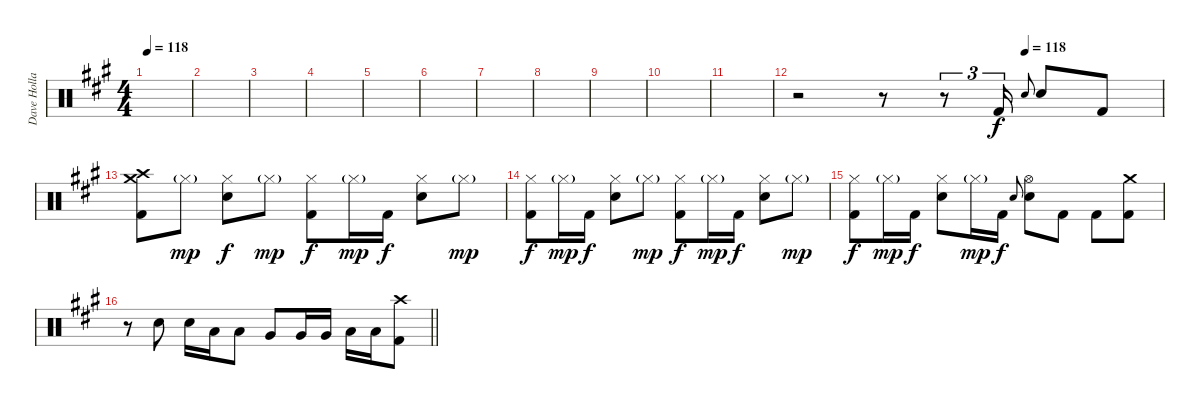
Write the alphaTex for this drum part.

\track ("Dave Holland" "Dave Holla") {instrument percussion}
\staff {score}
\articulation defaults
\ts (4 4)
\tempo 118
\tempo 114
\tempo 118
\clef neutral
\ks f#minor
|
|
|
|
|
|
|
|
|
|
|
\tempo (118 0.625)
r.2 r.8 r.8{tu (3 2)} "Kick (hit) 2".16{tu (3 2)} "Snare (hit) 2".8{gr onbeat} "Snare (hit) 2".8 "Kick (hit) 2".8 |
("Crash high (hit)" "Crash medium (hit)" "Kick (hit) 2").8 "Hi-Hat (closed)"{g}.8{dy mp} ("Hi-Hat (closed)" "Snare (hit) 2").8{dy f} "Hi-Hat (closed)"{g}.8{dy mp} ("Hi-Hat (closed)" "Kick (hit) 2").8{dy f} "Hi-Hat (closed)"{g}.16{dy mp} "Kick (hit) 2".16{dy f} ("Hi-Hat (closed)" "Snare (hit) 2").8 "Hi-Hat (closed)"{g}.8{dy mp} |
("Hi-Hat (closed)" "Kick (hit) 2").8{dy f} "Hi-Hat (closed)"{g}.16{dy mp} "Kick (hit) 2".16{dy f} ("Hi-Hat (closed)" "Snare (hit) 2").8 "Hi-Hat (closed)"{g}.8{dy mp} ("Hi-Hat (closed)" "Kick (hit) 2").8{dy f} "Hi-Hat (closed)"{g}.16{dy mp} "Kick (hit) 2".16{dy f} ("Hi-Hat (closed)" "Snare (hit) 2").8 "Hi-Hat (closed)"{g}.8{dy mp} |
("Hi-Hat (closed)" "Kick (hit) 2").8{dy f} "Hi-Hat (closed)"{g}.16{dy mp} "Kick (hit) 2".16{dy f} ("Hi-Hat (closed)" "Snare (hit) 2").8 "Hi-Hat (closed)"{g}.16{dy mp} "Kick (hit) 2".16{dy f} "Snare (hit) 2".8{gr onbeat} ("Hi-Hat (open)" "Snare (hit) 2").8 "Kick (hit) 2".8 "Kick (hit) 2".8 ("Crash medium (hit)" "Kick (hit) 2").8 |
\barLineRight lightlight
r.8 "Snare (hit) 2".8 "Snare (hit) 2".16 "Low Tom (hit)".16 "Low Tom (hit)".8 "Very Low Tom (hit)".8 "Very Low Tom (hit)".16 "Very Low Tom (hit)".16 "Low Floor Tom (hit)".16 "Low Floor Tom (hit)".16 ("Crash high (hit)" "Kick (hit) 2").8
